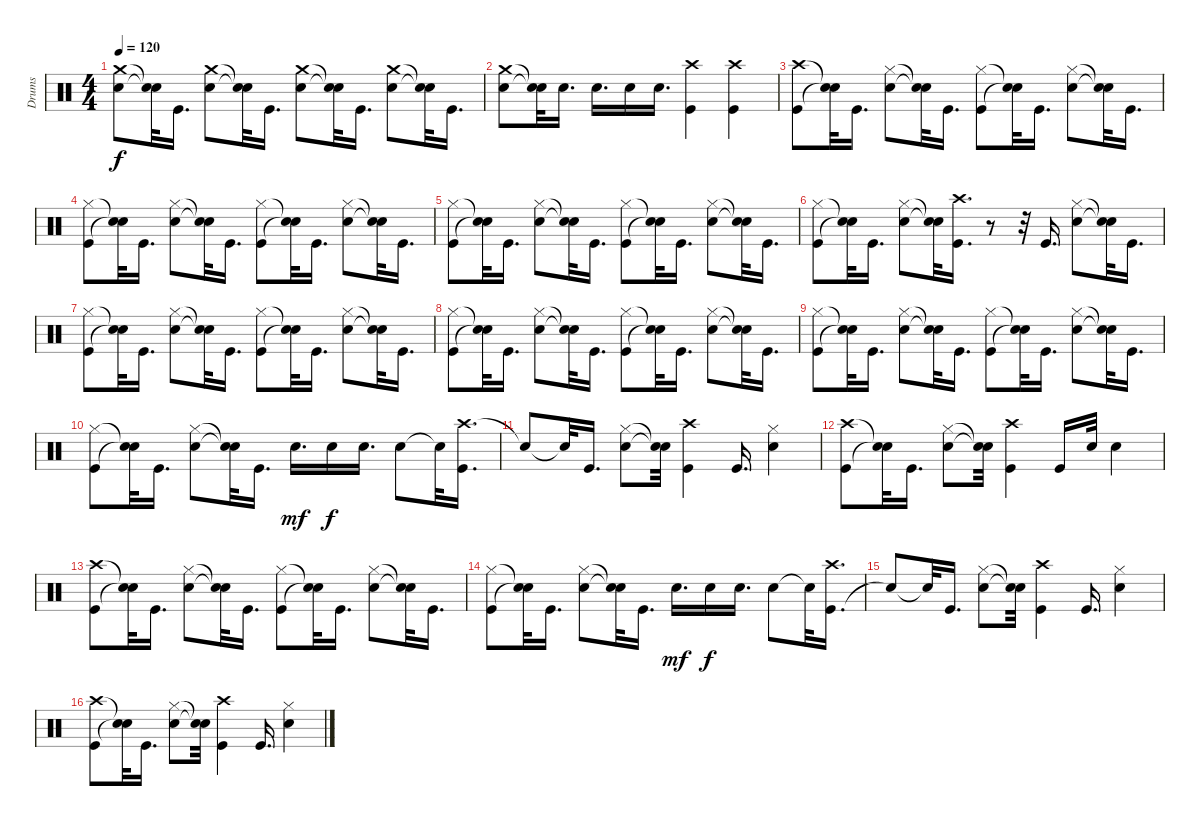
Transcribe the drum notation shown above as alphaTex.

\track ("Drums" "Drums") {instrument percussion}
\staff {score}
\articulation defaults
\ts (4 4)
\tempo 120
\clef neutral
\ks c
("Snare (hit) 2" "Crash medium (hit)").8{dy f} ("Snare (hit)"{t} "Snare (hit)"{t}).32 "Kick (hit)".16{d} ("Crash medium (hit)" "Snare (hit) 2").8 ("Snare (hit)"{t} "Snare (hit)"{t}).32 "Kick (hit)".16{d} ("Snare (hit) 2" "Crash medium (hit)").8 ("Snare (hit)"{t} "Snare (hit)"{t}).32 "Kick (hit)".16{d} ("Snare (hit) 2" "Crash medium (hit)").8 ("Snare (hit)"{t} "Snare (hit)"{t}).32 "Kick (hit)".16{d} |
("Crash medium (hit)" "Snare (hit) 2").8 ("Snare (hit)"{t} "Snare (hit)"{t}).32 "Snare (hit) 2".16{d} "Snare (hit) 2".16{d} "Snare (hit) 2".16 "Snare (hit) 2".16{d} ("Kick (hit)" "Crash high (hit)").4 ("Crash high (hit)" "Kick (hit)").4 |
("Kick (hit)" "Crash high (hit)").8 ("Snare (hit)"{t} "Snare (hit)"{t}).32 "Kick (hit)".16{d} ("Hi-Hat (closed)" "Snare (hit) 2").8 ("Snare (hit)"{t} "Snare (hit)"{t}).32 "Kick (hit)".16{d} ("Hi-Hat (closed)" "Kick (hit)").8 ("Snare (hit)"{t} "Snare (hit)"{t}).32 "Kick (hit)".16{d} ("Hi-Hat (closed)" "Snare (hit) 2").8 ("Snare (hit)"{t} "Snare (hit)"{t}).32 "Kick (hit)".16{d} |
("Hi-Hat (closed)" "Kick (hit)").8 ("Snare (hit)"{t} "Snare (hit)"{t}).32 "Kick (hit)".16{d} ("Hi-Hat (closed)" "Snare (hit) 2").8 ("Snare (hit)"{t} "Snare (hit)"{t}).32 "Kick (hit)".16{d} ("Hi-Hat (closed)" "Kick (hit)").8 ("Snare (hit)"{t} "Snare (hit)"{t}).32 "Kick (hit)".16{d} ("Snare (hit) 2" "Hi-Hat (closed)").8 ("Snare (hit)"{t} "Snare (hit)"{t}).32 "Kick (hit)".16{d} |
("Kick (hit)" "Hi-Hat (closed)").8 ("Snare (hit)"{t} "Snare (hit)"{t}).32 "Kick (hit)".16{d} ("Snare (hit) 2" "Hi-Hat (closed)").8 ("Snare (hit)"{t} "Snare (hit)"{t}).32 "Kick (hit)".16{d} ("Hi-Hat (closed)" "Kick (hit)").8 ("Snare (hit)"{t} "Snare (hit)"{t}).32 "Kick (hit)".16{d} ("Hi-Hat (closed)" "Snare (hit) 2").8 ("Snare (hit)"{t} "Snare (hit)"{t}).32 "Kick (hit)".16{d} |
("Kick (hit)" "Hi-Hat (closed)").8 ("Snare (hit)"{t} "Snare (hit)"{t}).32 "Kick (hit)".16{d} ("Hi-Hat (closed)" "Snare (hit) 2").8 ("Snare (hit)"{t} "Snare (hit)"{t}).32 ("Kick (hit)" "Crash high (hit)").16{d} r.8 r.32 "Kick (hit)".16{d} ("Hi-Hat (closed)" "Snare (hit) 2").8 ("Snare (hit)"{t} "Snare (hit)"{t}).32 "Kick (hit)".16{d} |
("Kick (hit)" "Hi-Hat (closed)").8 ("Snare (hit)"{t} "Snare (hit)"{t}).32 "Kick (hit)".16{d} ("Hi-Hat (closed)" "Snare (hit) 2").8 ("Snare (hit)"{t} "Snare (hit)"{t}).32 "Kick (hit)".16{d} ("Kick (hit)" "Hi-Hat (closed)").8 ("Snare (hit)"{t} "Snare (hit)"{t}).32 "Kick (hit)".16{d} ("Hi-Hat (closed)" "Snare (hit) 2").8 ("Snare (hit)"{t} "Snare (hit)"{t}).32 "Kick (hit)".16{d} |
("Hi-Hat (closed)" "Kick (hit)").8 ("Snare (hit)"{t} "Snare (hit)"{t}).32 "Kick (hit)".16{d} ("Hi-Hat (closed)" "Snare (hit) 2").8 ("Snare (hit)"{t} "Snare (hit)"{t}).32 "Kick (hit)".16{d} ("Kick (hit)" "Hi-Hat (closed)").8 ("Snare (hit)"{t} "Snare (hit)"{t}).32 "Kick (hit)".16{d} ("Snare (hit) 2" "Hi-Hat (closed)").8 ("Snare (hit)"{t} "Snare (hit)"{t}).32 "Kick (hit)".16{d} |
("Hi-Hat (closed)" "Kick (hit)").8 ("Snare (hit)"{t} "Snare (hit)"{t}).32 "Kick (hit)".16{d} ("Hi-Hat (closed)" "Snare (hit) 2").8 ("Snare (hit)"{t} "Snare (hit)"{t}).32 "Kick (hit)".16{d} ("Hi-Hat (closed)" "Kick (hit)").8 ("Snare (hit)"{t} "Snare (hit)"{t}).32 "Kick (hit)".16{d} ("Hi-Hat (closed)" "Snare (hit) 2").8 ("Snare (hit)"{t} "Snare (hit)"{t}).32 "Kick (hit)".16{d} |
("Kick (hit)" "Hi-Hat (closed)").8 ("Snare (hit)"{t} "Snare (hit)"{t}).32 "Kick (hit)".16{d} ("Snare (hit) 2" "Hi-Hat (closed)").8 ("Snare (hit)"{t} "Snare (hit)"{t}).32 "Kick (hit)".16{d} "Snare (hit) 2".16{d dy mf} "Snare (hit) 2".16{dy f} "Snare (hit) 2".16{d} "Snare (hit) 2".8 "Snare (hit)"{t}.32 ("Crash high (hit)" "Kick (hit)").16{d} |
"Snare (hit)"{t}.8 "Snare (hit)"{t}.32 "Kick (hit)".16{d} ("Snare (hit) 2" "Hi-Hat (closed)").8 ("Snare (hit)"{t} "Snare (hit)"{t}).32 ("Kick (hit)" "Crash high (hit)").4 "Kick (hit)".16{d} ("Snare (hit) 2" "Hi-Hat (closed)").4 |
("Kick (hit)" "Crash high (hit)").8 ("Snare (hit)"{t} "Snare (hit)"{t}).32 "Kick (hit)".16{d} ("Hi-Hat (closed)" "Snare (hit) 2").8 ("Snare (hit)"{t} "Snare (hit)"{t}).32 ("Kick (hit)" "Crash high (hit)").4 "Kick (hit)".16 "Snare (hit) 2".32 "Snare (hit) 2".4 |
("Crash high (hit)" "Kick (hit)").8 ("Snare (hit)"{t} "Snare (hit)"{t}).32 "Kick (hit)".16{d} ("Snare (hit) 2" "Hi-Hat (closed)").8 ("Snare (hit)"{t} "Snare (hit)"{t}).32 "Kick (hit)".16{d} ("Hi-Hat (closed)" "Kick (hit)").8 ("Snare (hit)"{t} "Snare (hit)"{t}).32 "Kick (hit)".16{d} ("Hi-Hat (closed)" "Snare (hit) 2").8 ("Snare (hit)"{t} "Snare (hit)"{t}).32 "Kick (hit)".16{d} |
("Kick (hit)" "Hi-Hat (closed)").8 ("Snare (hit)"{t} "Snare (hit)"{t}).32 "Kick (hit)".16{d} ("Snare (hit) 2" "Hi-Hat (closed)").8 ("Snare (hit)"{t} "Snare (hit)"{t}).32 "Kick (hit)".16{d} "Snare (hit) 2".16{d dy mf} "Snare (hit) 2".16{dy f} "Snare (hit) 2".16{d} "Snare (hit) 2".8 "Snare (hit)"{t}.32 ("Kick (hit)" "Crash high (hit)").16{d} |
"Snare (hit)"{t}.8 "Snare (hit)"{t}.32 "Kick (hit)".16{d} ("Hi-Hat (closed)" "Snare (hit) 2").8 ("Snare (hit)"{t} "Snare (hit)"{t}).32 ("Kick (hit)" "Crash high (hit)").4 "Kick (hit)".16{d} ("Snare (hit) 2" "Hi-Hat (closed)").4 |
("Kick (hit)" "Crash high (hit)").8 ("Snare (hit)"{t} "Snare (hit)"{t}).32 "Kick (hit)".16{d} ("Hi-Hat (closed)" "Snare (hit) 2").8 ("Snare (hit)"{t} "Snare (hit)"{t}).32 ("Crash high (hit)" "Kick (hit)").4 "Kick (hit)".16{d} ("Snare (hit) 2" "Hi-Hat (closed)").4
